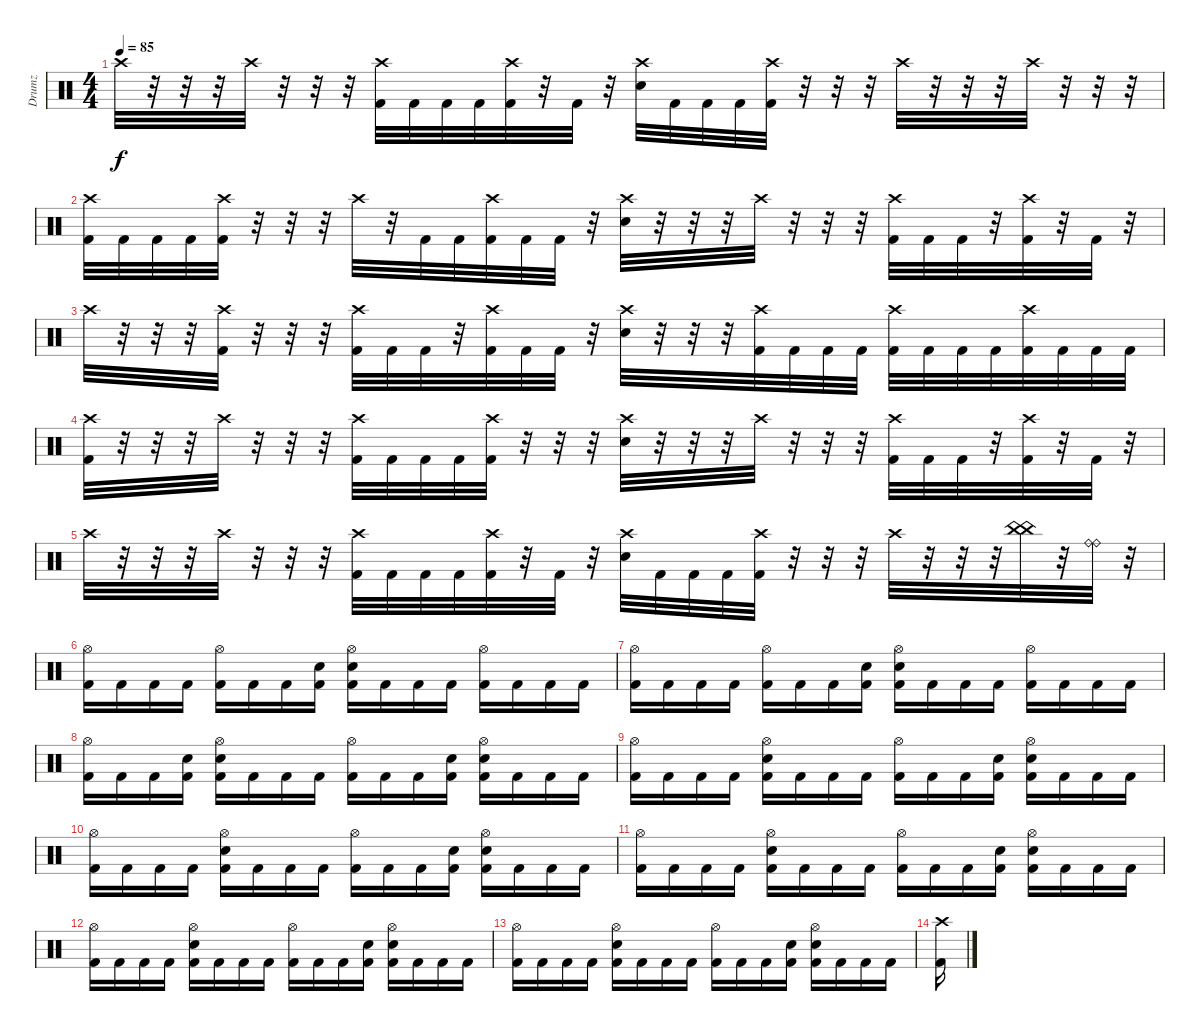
\track ("Drumz" "Drumz") {instrument percussion}
\staff {score}
\articulation defaults
\ts (4 4)
\tempo 85
\clef neutral
\ks c "Crash high (hit)".32{dy f}
r.32 r.32 r.32 "Crash high (hit)".32 r.32 r.32 r.32 ("Crash high (hit)" "Kick (hit) 2").32 "Kick (hit) 2".32 "Kick (hit) 2".32 "Kick (hit) 2".32 ("Crash high (hit)" "Kick (hit) 2").32 r.32 "Kick (hit) 2".32 r.32 ("Crash high (hit)" "Snare (hit) 2").32 "Kick (hit) 2".32 "Kick (hit) 2".32 "Kick (hit) 2".32 ("Crash high (hit)" "Kick (hit) 2").32 r.32 r.32 r.32 "Crash high (hit)".32 r.32 r.32 r.32 "Crash high (hit)".32 r.32 r.32 r.32 |
("Crash high (hit)" "Kick (hit) 2").32 "Kick (hit) 2".32 "Kick (hit) 2".32 "Kick (hit) 2".32 ("Crash high (hit)" "Kick (hit) 2").32 r.32 r.32 r.32 "Crash high (hit)".32 r.32 "Kick (hit) 2".32 "Kick (hit) 2".32 ("Crash high (hit)" "Kick (hit) 2").32 "Kick (hit) 2".32 "Kick (hit) 2".32 r.32 ("Crash high (hit)" "Snare (hit) 2").32 r.32 r.32 r.32 "Crash high (hit)".32 r.32 r.32 r.32 ("Crash high (hit)" "Kick (hit) 2").32 "Kick (hit) 2".32 "Kick (hit) 2".32 r.32 ("Crash high (hit)" "Kick (hit) 2").32 r.32 "Kick (hit) 2".32 r.32 |
"Crash high (hit)".32 r.32 r.32 r.32 ("Crash high (hit)" "Kick (hit) 2").32 r.32 r.32 r.32 ("Crash high (hit)" "Kick (hit) 2").32 "Kick (hit) 2".32 "Kick (hit) 2".32 r.32 ("Crash high (hit)" "Kick (hit) 2").32 "Kick (hit) 2".32 "Kick (hit) 2".32 r.32 ("Crash high (hit)" "Snare (hit) 2").32 r.32 r.32 r.32 ("Crash high (hit)" "Kick (hit) 2").32 "Kick (hit) 2".32 "Kick (hit) 2".32 "Kick (hit) 2".32 ("Crash high (hit)" "Kick (hit) 2").32 "Kick (hit) 2".32 "Kick (hit) 2".32 "Kick (hit) 2".32 ("Crash high (hit)" "Kick (hit) 2").32 "Kick (hit) 2".32 "Kick (hit) 2".32 "Kick (hit) 2".32 |
("Crash high (hit)" "Kick (hit) 2").32 r.32 r.32 r.32 "Crash high (hit)".32 r.32 r.32 r.32 ("Crash high (hit)" "Kick (hit) 2").32 "Kick (hit) 2".32 "Kick (hit) 2".32 "Kick (hit) 2".32 ("Crash high (hit)" "Kick (hit) 2").32 r.32 r.32 r.32 ("Crash high (hit)" "Snare (hit) 2").32 r.32 r.32 r.32 "Crash high (hit)".32 r.32 r.32 r.32 ("Crash high (hit)" "Kick (hit) 2").32 "Kick (hit) 2".32 "Kick (hit) 2".32 r.32 ("Crash high (hit)" "Kick (hit) 2").32 r.32 "Kick (hit) 2".32 r.32 |
"Crash high (hit)".32 r.32 r.32 r.32 "Crash high (hit)".32 r.32 r.32 r.32 ("Crash high (hit)" "Kick (hit) 2").32 "Kick (hit) 2".32 "Kick (hit) 2".32 "Kick (hit) 2".32 ("Crash high (hit)" "Kick (hit) 2").32 r.32 "Kick (hit) 2".32 r.32 ("Crash high (hit)" "Snare (hit) 2").32 "Kick (hit) 2".32 "Kick (hit) 2".32 "Kick (hit) 2".32 ("Crash high (hit)" "Kick (hit) 2").32 r.32 r.32 r.32 "Crash high (hit)".32 r.32 r.32 r.32 ("China (hit)" "China (hit)").32 r.32 ("Ride (bell)" "Ride (bell)").32 r.32 |
("Hi-Hat (open)" "Kick (hit) 2").16 "Kick (hit) 2".16 "Kick (hit) 2".16 "Kick (hit) 2".16 ("Hi-Hat (open)" "Kick (hit) 2").16 "Kick (hit) 2".16 "Kick (hit) 2".16 ("Snare (hit) 2" "Kick (hit) 2").16 ("Hi-Hat (open)" "Snare (hit) 2" "Kick (hit) 2").16 "Kick (hit) 2".16 "Kick (hit) 2".16 "Kick (hit) 2".16 ("Hi-Hat (open)" "Kick (hit) 2").16 "Kick (hit) 2".16 "Kick (hit) 2".16 "Kick (hit) 2".16 |
("Hi-Hat (open)" "Kick (hit) 2").16 "Kick (hit) 2".16 "Kick (hit) 2".16 "Kick (hit) 2".16 ("Hi-Hat (open)" "Kick (hit) 2").16 "Kick (hit) 2".16 "Kick (hit) 2".16 ("Snare (hit) 2" "Kick (hit) 2").16 ("Hi-Hat (open)" "Snare (hit) 2" "Kick (hit) 2").16 "Kick (hit) 2".16 "Kick (hit) 2".16 "Kick (hit) 2".16 ("Hi-Hat (open)" "Kick (hit) 2").16 "Kick (hit) 2".16 "Kick (hit) 2".16 "Kick (hit) 2".16 |
("Hi-Hat (open)" "Kick (hit) 2").16 "Kick (hit) 2".16 "Kick (hit) 2".16 ("Snare (hit) 2" "Kick (hit) 2").16 ("Hi-Hat (open)" "Snare (hit) 2" "Kick (hit) 2").16 "Kick (hit) 2".16 "Kick (hit) 2".16 "Kick (hit) 2".16 ("Hi-Hat (open)" "Kick (hit) 2").16 "Kick (hit) 2".16 "Kick (hit) 2".16 ("Snare (hit) 2" "Kick (hit) 2").16 ("Hi-Hat (open)" "Snare (hit) 2" "Kick (hit) 2").16 "Kick (hit) 2".16 "Kick (hit) 2".16 "Kick (hit) 2".16 |
("Hi-Hat (open)" "Kick (hit) 2").16 "Kick (hit) 2".16 "Kick (hit) 2".16 "Kick (hit) 2".16 ("Hi-Hat (open)" "Snare (hit) 2" "Kick (hit) 2").16 "Kick (hit) 2".16 "Kick (hit) 2".16 "Kick (hit) 2".16 ("Hi-Hat (open)" "Kick (hit) 2").16 "Kick (hit) 2".16 "Kick (hit) 2".16 ("Snare (hit) 2" "Kick (hit) 2").16 ("Hi-Hat (open)" "Snare (hit) 2" "Kick (hit) 2").16 "Kick (hit) 2".16 "Kick (hit) 2".16 "Kick (hit) 2".16 |
("Hi-Hat (open)" "Kick (hit) 2").16 "Kick (hit) 2".16 "Kick (hit) 2".16 "Kick (hit) 2".16 ("Hi-Hat (open)" "Snare (hit) 2" "Kick (hit) 2").16 "Kick (hit) 2".16 "Kick (hit) 2".16 "Kick (hit) 2".16 ("Hi-Hat (open)" "Kick (hit) 2").16 "Kick (hit) 2".16 "Kick (hit) 2".16 ("Snare (hit) 2" "Kick (hit) 2").16 ("Hi-Hat (open)" "Snare (hit) 2" "Kick (hit) 2").16 "Kick (hit) 2".16 "Kick (hit) 2".16 "Kick (hit) 2".16 |
("Hi-Hat (open)" "Kick (hit) 2").16 "Kick (hit) 2".16 "Kick (hit) 2".16 "Kick (hit) 2".16 ("Hi-Hat (open)" "Snare (hit) 2" "Kick (hit) 2").16 "Kick (hit) 2".16 "Kick (hit) 2".16 "Kick (hit) 2".16 ("Hi-Hat (open)" "Kick (hit) 2").16 "Kick (hit) 2".16 "Kick (hit) 2".16 ("Snare (hit) 2" "Kick (hit) 2").16 ("Hi-Hat (open)" "Snare (hit) 2" "Kick (hit) 2").16 "Kick (hit) 2".16 "Kick (hit) 2".16 "Kick (hit) 2".16 |
("Hi-Hat (open)" "Kick (hit) 2").16 "Kick (hit) 2".16 "Kick (hit) 2".16 "Kick (hit) 2".16 ("Hi-Hat (open)" "Snare (hit) 2" "Kick (hit) 2").16 "Kick (hit) 2".16 "Kick (hit) 2".16 "Kick (hit) 2".16 ("Hi-Hat (open)" "Kick (hit) 2").16 "Kick (hit) 2".16 "Kick (hit) 2".16 ("Snare (hit) 2" "Kick (hit) 2").16 ("Hi-Hat (open)" "Snare (hit) 2" "Kick (hit) 2").16 "Kick (hit) 2".16 "Kick (hit) 2".16 "Kick (hit) 2".16 |
("Hi-Hat (open)" "Kick (hit) 2").16 "Kick (hit) 2".16 "Kick (hit) 2".16 "Kick (hit) 2".16 ("Hi-Hat (open)" "Snare (hit) 2" "Kick (hit) 2").16 "Kick (hit) 2".16 "Kick (hit) 2".16 "Kick (hit) 2".16 ("Hi-Hat (open)" "Kick (hit) 2").16 "Kick (hit) 2".16 "Kick (hit) 2".16 ("Snare (hit) 2" "Kick (hit) 2").16 ("Hi-Hat (open)" "Snare (hit) 2" "Kick (hit) 2").16 "Kick (hit) 2".16 "Kick (hit) 2".16 "Kick (hit) 2".16 |
("Crash high (hit)" "Kick (hit) 2").16
